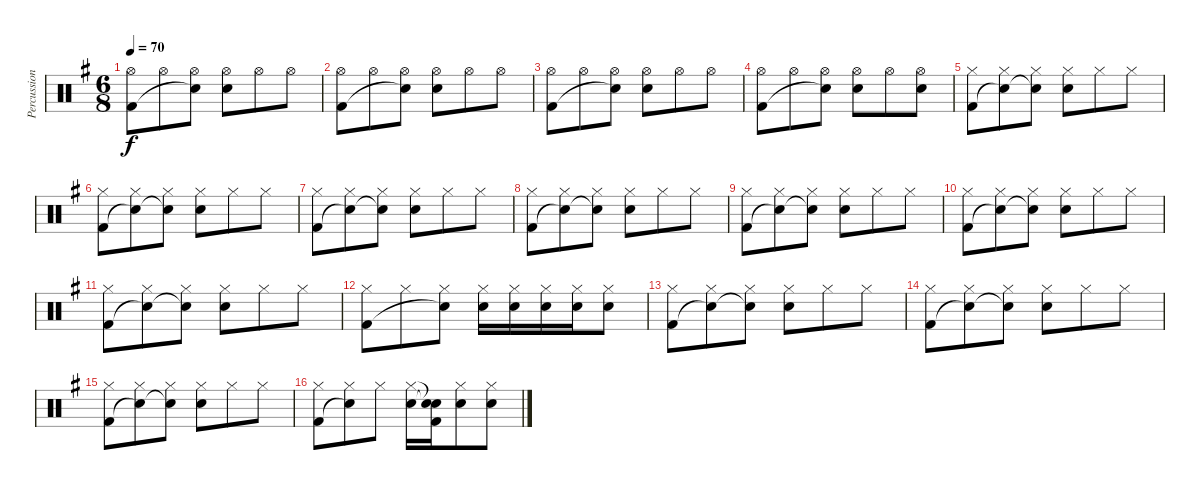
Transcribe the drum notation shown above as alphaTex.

\track ("Percussion" "Percussion") {instrument percussion}
\staff {score}
\articulation defaults
\ts (6 8)
\tempo 70
\clef neutral
\ks g
("Hi-Hat (open)" "Kick (hit) 2").8{dy f} "Hi-Hat (open)".8 ("Hi-Hat (open)" "Snare (hit)"{t}).8 ("Hi-Hat (open)" "Snare (hit) 2").8 "Hi-Hat (open)".8 "Hi-Hat (open)".8 |
("Hi-Hat (open)" "Kick (hit) 2").8 "Hi-Hat (open)".8 ("Hi-Hat (open)" "Snare (hit)"{t}).8 ("Hi-Hat (open)" "Snare (hit) 2").8 "Hi-Hat (open)".8 "Hi-Hat (open)".8 |
("Hi-Hat (open)" "Kick (hit) 2").8 "Hi-Hat (open)".8 ("Hi-Hat (open)" "Snare (hit)"{t}).8 ("Hi-Hat (open)" "Snare (hit) 2").8 "Hi-Hat (open)".8 "Hi-Hat (open)".8 |
("Hi-Hat (open)" "Kick (hit) 2").8 "Hi-Hat (open)".8 ("Hi-Hat (open)" "Snare (hit)"{t}).8 ("Hi-Hat (open)" "Snare (hit) 2").8 "Hi-Hat (open)".8 ("Hi-Hat (open)" "Snare (hit) 2").8 |
("Hi-Hat (closed)" "Kick (hit) 2").8 ("Hi-Hat (closed)" "Snare (hit)"{t}).8 ("Hi-Hat (closed)" "Snare (hit)"{t}).8 ("Hi-Hat (closed)" "Snare (hit) 2").8 "Hi-Hat (closed)".8 "Hi-Hat (closed)".8 |
("Hi-Hat (closed)" "Kick (hit) 2").8 ("Hi-Hat (closed)" "Snare (hit)"{t}).8 ("Hi-Hat (closed)" "Snare (hit)"{t}).8 ("Hi-Hat (closed)" "Snare (hit) 2").8 "Hi-Hat (closed)".8 "Hi-Hat (closed)".8 |
("Hi-Hat (closed)" "Kick (hit) 2").8 ("Hi-Hat (closed)" "Snare (hit)"{t}).8 ("Hi-Hat (closed)" "Snare (hit)"{t}).8 ("Hi-Hat (closed)" "Snare (hit) 2").8 "Hi-Hat (closed)".8 "Hi-Hat (closed)".8 |
("Hi-Hat (closed)" "Kick (hit) 2").8 ("Hi-Hat (closed)" "Snare (hit)"{t}).8 ("Hi-Hat (closed)" "Snare (hit)"{t}).8 ("Hi-Hat (closed)" "Snare (hit) 2").8 "Hi-Hat (closed)".8 "Hi-Hat (closed)".8 |
("Hi-Hat (closed)" "Kick (hit) 2").8 ("Hi-Hat (closed)" "Snare (hit)"{t}).8 ("Hi-Hat (closed)" "Snare (hit)"{t}).8 ("Hi-Hat (closed)" "Snare (hit) 2").8 "Hi-Hat (closed)".8 "Hi-Hat (closed)".8 |
("Hi-Hat (closed)" "Kick (hit) 2").8 ("Hi-Hat (closed)" "Snare (hit)"{t}).8 ("Hi-Hat (closed)" "Snare (hit)"{t}).8 ("Hi-Hat (closed)" "Snare (hit) 2").8 "Hi-Hat (closed)".8 "Hi-Hat (closed)".8 |
("Hi-Hat (closed)" "Kick (hit) 2").8 ("Hi-Hat (closed)" "Snare (hit)"{t}).8 ("Hi-Hat (closed)" "Snare (hit)"{t}).8 ("Hi-Hat (closed)" "Snare (hit) 2").8 "Hi-Hat (closed)".8 "Hi-Hat (closed)".8 |
("Hi-Hat (closed)" "Kick (hit) 2").8 "Hi-Hat (closed)".8 ("Hi-Hat (closed)" "Snare (hit)"{t}).8 ("Hi-Hat (closed)" "Snare (hit) 2").16 ("Hi-Hat (closed)" "Snare (hit) 2").16 ("Hi-Hat (closed)" "Snare (hit) 2").16 ("Hi-Hat (closed)" "Snare (hit) 2").16 ("Hi-Hat (closed)" "Snare (hit) 2").8 |
("Hi-Hat (closed)" "Kick (hit) 2").8 ("Hi-Hat (closed)" "Snare (hit)"{t}).8 ("Hi-Hat (closed)" "Snare (hit)"{t}).8 ("Hi-Hat (closed)" "Snare (hit) 2").8 "Hi-Hat (closed)".8 "Hi-Hat (closed)".8 |
("Hi-Hat (closed)" "Kick (hit) 2").8 ("Hi-Hat (closed)" "Snare (hit)"{t}).8 ("Hi-Hat (closed)" "Snare (hit)"{t}).8 ("Hi-Hat (closed)" "Snare (hit) 2").8 "Hi-Hat (closed)".8 "Hi-Hat (closed)".8 |
("Hi-Hat (closed)" "Kick (hit) 2").8 ("Hi-Hat (closed)" "Snare (hit)"{t}).8 ("Hi-Hat (closed)" "Snare (hit)"{t}).8 ("Hi-Hat (closed)" "Snare (hit) 2").8 "Hi-Hat (closed)".8 "Hi-Hat (closed)".8 |
("Hi-Hat (closed)" "Kick (hit) 2").8 ("Hi-Hat (closed)" "Snare (hit)"{t}).8 "Hi-Hat (closed)".8 ("Hi-Hat (closed)" "Snare (hit) 2").16 ("Snare (hit)"{t} "Snare (hit)"{t} "Kick (hit) 2").16 ("Hi-Hat (closed)" "Snare (hit) 2").8 ("Hi-Hat (closed)" "Snare (hit) 2").8
